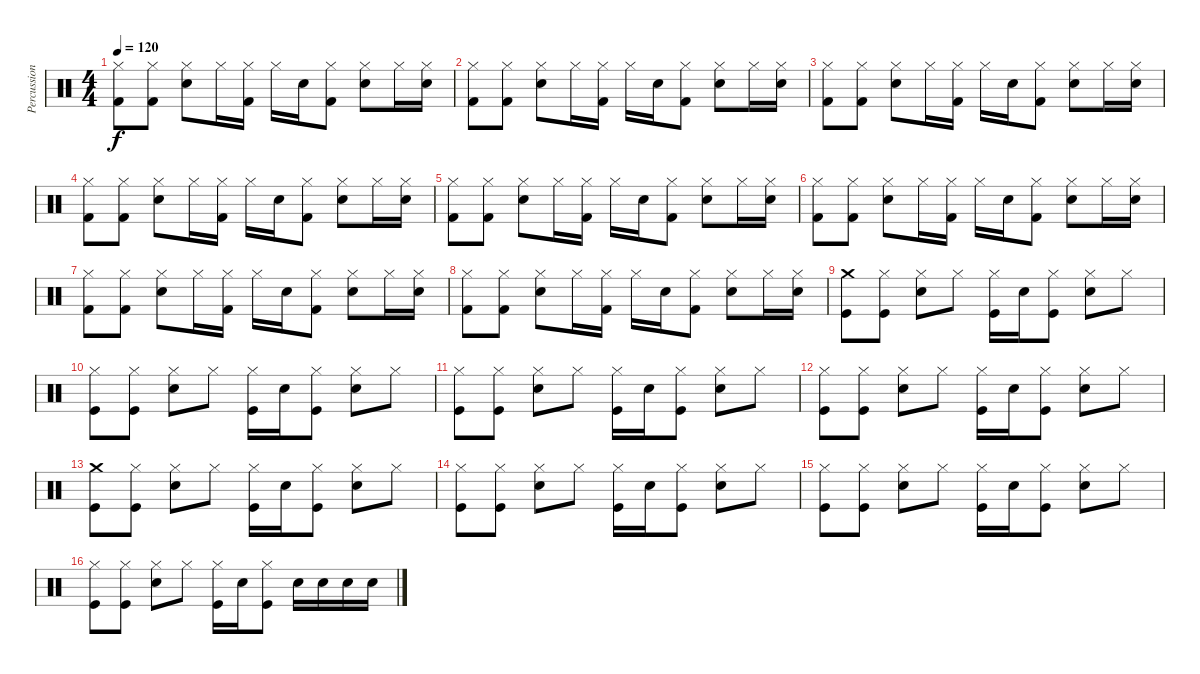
\track ("Percussion" "Percussion") {instrument percussion}
\staff {score}
\articulation defaults
\ts (4 4)
\tempo 120
\clef neutral
\ks c
("Hi-Hat (closed)" "Kick (hit) 2").8{dy f} ("Hi-Hat (closed)" "Kick (hit) 2").8 ("Hi-Hat (closed)" "Snare (hit) 2").8 "Hi-Hat (closed)".16 ("Hi-Hat (closed)" "Kick (hit) 2").16 "Hi-Hat (closed)".16 "Snare (hit) 2".16 ("Hi-Hat (closed)" "Kick (hit) 2").8 ("Hi-Hat (closed)" "Snare (hit) 2").8 "Hi-Hat (closed)".16 ("Hi-Hat (closed)" "Snare (hit) 2").16 |
("Hi-Hat (closed)" "Kick (hit) 2").8 ("Hi-Hat (closed)" "Kick (hit) 2").8 ("Hi-Hat (closed)" "Snare (hit) 2").8 "Hi-Hat (closed)".16 ("Hi-Hat (closed)" "Kick (hit) 2").16 "Hi-Hat (closed)".16 "Snare (hit) 2".16 ("Hi-Hat (closed)" "Kick (hit) 2").8 ("Hi-Hat (closed)" "Snare (hit) 2").8 "Hi-Hat (closed)".16 ("Hi-Hat (closed)" "Snare (hit) 2").16 |
("Hi-Hat (closed)" "Kick (hit) 2").8 ("Hi-Hat (closed)" "Kick (hit) 2").8 ("Hi-Hat (closed)" "Snare (hit) 2").8 "Hi-Hat (closed)".16 ("Hi-Hat (closed)" "Kick (hit) 2").16 "Hi-Hat (closed)".16 "Snare (hit) 2".16 ("Hi-Hat (closed)" "Kick (hit) 2").8 ("Hi-Hat (closed)" "Snare (hit) 2").8 "Hi-Hat (closed)".16 ("Hi-Hat (closed)" "Snare (hit) 2").16 |
("Hi-Hat (closed)" "Kick (hit) 2").8 ("Hi-Hat (closed)" "Kick (hit) 2").8 ("Hi-Hat (closed)" "Snare (hit) 2").8 "Hi-Hat (closed)".16 ("Hi-Hat (closed)" "Kick (hit) 2").16 "Hi-Hat (closed)".16 "Snare (hit) 2".16 ("Hi-Hat (closed)" "Kick (hit) 2").8 ("Hi-Hat (closed)" "Snare (hit) 2").8 "Hi-Hat (closed)".16 ("Hi-Hat (closed)" "Snare (hit) 2").16 |
("Hi-Hat (closed)" "Kick (hit) 2").8 ("Hi-Hat (closed)" "Kick (hit) 2").8 ("Hi-Hat (closed)" "Snare (hit) 2").8 "Hi-Hat (closed)".16 ("Hi-Hat (closed)" "Kick (hit) 2").16 "Hi-Hat (closed)".16 "Snare (hit) 2".16 ("Hi-Hat (closed)" "Kick (hit) 2").8 ("Hi-Hat (closed)" "Snare (hit) 2").8 "Hi-Hat (closed)".16 ("Hi-Hat (closed)" "Snare (hit) 2").16 |
("Hi-Hat (closed)" "Kick (hit) 2").8 ("Hi-Hat (closed)" "Kick (hit) 2").8 ("Hi-Hat (closed)" "Snare (hit) 2").8 "Hi-Hat (closed)".16 ("Hi-Hat (closed)" "Kick (hit) 2").16 "Hi-Hat (closed)".16 "Snare (hit) 2".16 ("Hi-Hat (closed)" "Kick (hit) 2").8 ("Hi-Hat (closed)" "Snare (hit) 2").8 "Hi-Hat (closed)".16 ("Hi-Hat (closed)" "Snare (hit) 2").16 |
("Hi-Hat (closed)" "Kick (hit) 2").8 ("Hi-Hat (closed)" "Kick (hit) 2").8 ("Hi-Hat (closed)" "Snare (hit) 2").8 "Hi-Hat (closed)".16 ("Hi-Hat (closed)" "Kick (hit) 2").16 "Hi-Hat (closed)".16 "Snare (hit) 2".16 ("Hi-Hat (closed)" "Kick (hit) 2").8 ("Hi-Hat (closed)" "Snare (hit) 2").8 "Hi-Hat (closed)".16 ("Hi-Hat (closed)" "Snare (hit) 2").16 |
("Hi-Hat (closed)" "Kick (hit) 2").8 ("Hi-Hat (closed)" "Kick (hit) 2").8 ("Hi-Hat (closed)" "Snare (hit) 2").8 "Hi-Hat (closed)".16 ("Hi-Hat (closed)" "Kick (hit) 2").16 "Hi-Hat (closed)".16 "Snare (hit) 2".16 ("Hi-Hat (closed)" "Kick (hit) 2").8 ("Hi-Hat (closed)" "Snare (hit) 2").8 "Hi-Hat (closed)".16 ("Hi-Hat (closed)" "Snare (hit) 2").16 |
("Crash medium (hit)" "Kick (hit)").8 ("Hi-Hat (closed)" "Kick (hit)").8 ("Hi-Hat (closed)" "Electric Snare (hit)").8 "Hi-Hat (closed)".8 ("Hi-Hat (closed)" "Kick (hit)").16 "Electric Snare (hit)".16 ("Hi-Hat (closed)" "Kick (hit)").8 ("Hi-Hat (closed)" "Electric Snare (hit)").8 "Hi-Hat (closed)".8 |
("Hi-Hat (closed)" "Kick (hit)").8 ("Hi-Hat (closed)" "Kick (hit)").8 ("Hi-Hat (closed)" "Electric Snare (hit)").8 "Hi-Hat (closed)".8 ("Hi-Hat (closed)" "Kick (hit)").16 "Electric Snare (hit)".16 ("Hi-Hat (closed)" "Kick (hit)").8 ("Hi-Hat (closed)" "Electric Snare (hit)").8 "Hi-Hat (closed)".8 |
("Hi-Hat (closed)" "Kick (hit)").8 ("Hi-Hat (closed)" "Kick (hit)").8 ("Hi-Hat (closed)" "Electric Snare (hit)").8 "Hi-Hat (closed)".8 ("Hi-Hat (closed)" "Kick (hit)").16 "Electric Snare (hit)".16 ("Hi-Hat (closed)" "Kick (hit)").8 ("Hi-Hat (closed)" "Electric Snare (hit)").8 "Hi-Hat (closed)".8 |
("Hi-Hat (closed)" "Kick (hit)").8 ("Hi-Hat (closed)" "Kick (hit)").8 ("Hi-Hat (closed)" "Electric Snare (hit)").8 "Hi-Hat (closed)".8 ("Hi-Hat (closed)" "Kick (hit)").16 "Electric Snare (hit)".16 ("Hi-Hat (closed)" "Kick (hit)").8 ("Hi-Hat (closed)" "Electric Snare (hit)").8 "Hi-Hat (closed)".8 |
("Crash medium (hit)" "Kick (hit)").8 ("Hi-Hat (closed)" "Kick (hit)").8 ("Hi-Hat (closed)" "Electric Snare (hit)").8 "Hi-Hat (closed)".8 ("Hi-Hat (closed)" "Kick (hit)").16 "Electric Snare (hit)".16 ("Hi-Hat (closed)" "Kick (hit)").8 ("Hi-Hat (closed)" "Electric Snare (hit)").8 "Hi-Hat (closed)".8 |
("Hi-Hat (closed)" "Kick (hit)").8 ("Hi-Hat (closed)" "Kick (hit)").8 ("Hi-Hat (closed)" "Electric Snare (hit)").8 "Hi-Hat (closed)".8 ("Hi-Hat (closed)" "Kick (hit)").16 "Electric Snare (hit)".16 ("Hi-Hat (closed)" "Kick (hit)").8 ("Hi-Hat (closed)" "Electric Snare (hit)").8 "Hi-Hat (closed)".8 |
("Hi-Hat (closed)" "Kick (hit)").8 ("Hi-Hat (closed)" "Kick (hit)").8 ("Hi-Hat (closed)" "Electric Snare (hit)").8 "Hi-Hat (closed)".8 ("Hi-Hat (closed)" "Kick (hit)").16 "Electric Snare (hit)".16 ("Hi-Hat (closed)" "Kick (hit)").8 ("Hi-Hat (closed)" "Electric Snare (hit)").8 "Hi-Hat (closed)".8 |
("Hi-Hat (closed)" "Kick (hit)").8 ("Hi-Hat (closed)" "Kick (hit)").8 ("Hi-Hat (closed)" "Electric Snare (hit)").8 "Hi-Hat (closed)".8 ("Hi-Hat (closed)" "Kick (hit)").16 "Electric Snare (hit)".16 ("Hi-Hat (closed)" "Kick (hit)").8 "Electric Snare (hit)".16 "Electric Snare (hit)".16 "Electric Snare (hit)".16 "Electric Snare (hit)".16
